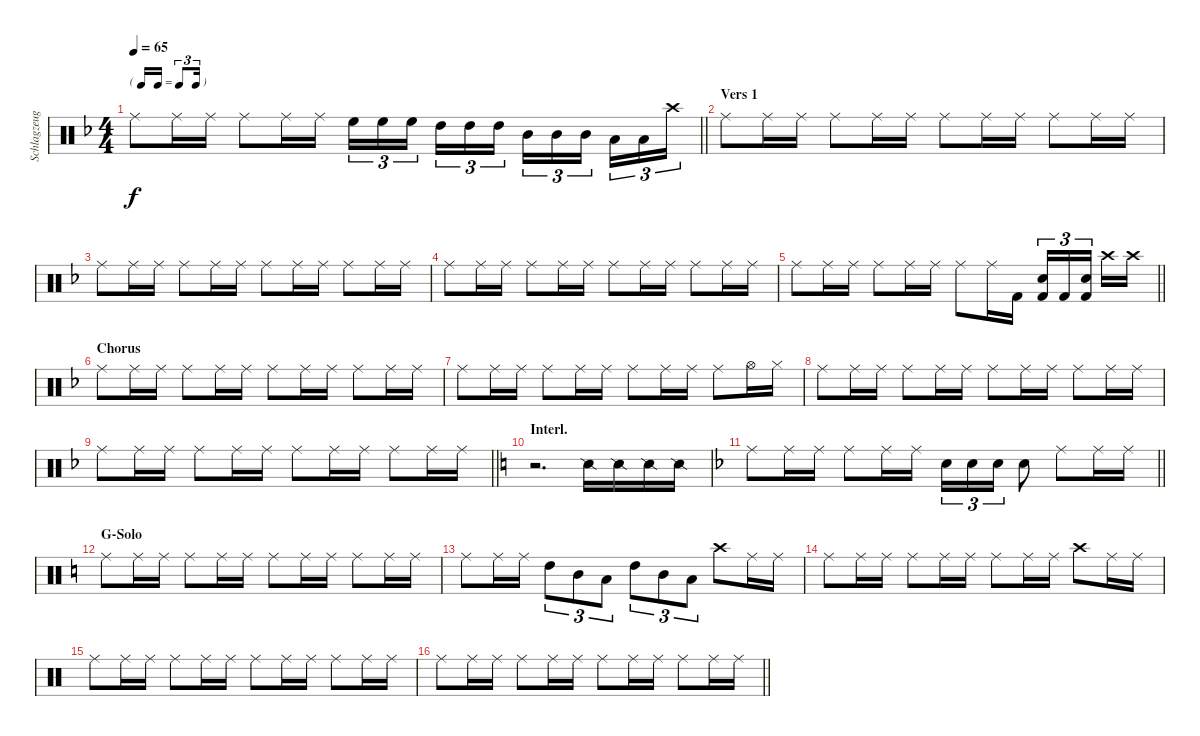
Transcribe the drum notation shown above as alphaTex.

\track ("Schlagzeug" "Schlagzeug") {instrument percussion}
\staff {score}
\articulation defaults
\ts (4 4)
\tf triplet16th
\tempo 65
\clef neutral
\barLineRight lightlight
\ks f "Ride (middle)".8{dy f} "Ride (middle)".16 "Ride (middle)".16 "Ride (middle)".8 "Ride (middle)".16 "Ride (middle)".16 "High Floor Tom (hit)".16{tu (3 2)} "High Floor Tom (hit)".16{tu (3 2)} "High Floor Tom (hit)".16{tu (3 2) beam splitsecondary} "High Tom (hit)".16{tu (3 2)} "High Tom (hit)".16{tu (3 2)} "High Tom (hit)".16{tu (3 2)} "Mid Tom (hit)".16{tu (3 2)} "Mid Tom (hit)".16{tu (3 2)} "Mid Tom (hit)".16{tu (3 2) beam splitsecondary} "Low Tom (hit)".16{tu (3 2)} "Low Tom (hit)".16{tu (3 2)} "Crash high (hit)".16{tu (3 2)}
|
\section ("" "Vers 1")
"Ride (middle)".8 "Ride (middle)".16 "Ride (middle)".16 "Ride (middle)".8 "Ride (middle)".16 "Ride (middle)".16 "Ride (middle)".8 "Ride (middle)".16 "Ride (middle)".16 "Ride (middle)".8 "Ride (middle)".16 "Ride (middle)".16 |
"Ride (middle)".8 "Ride (middle)".16 "Ride (middle)".16 "Ride (middle)".8 "Ride (middle)".16 "Ride (middle)".16 "Ride (middle)".8 "Ride (middle)".16 "Ride (middle)".16 "Ride (middle)".8 "Ride (middle)".16 "Ride (middle)".16 |
"Ride (middle)".8 "Ride (middle)".16 "Ride (middle)".16 "Ride (middle)".8 "Ride (middle)".16 "Ride (middle)".16 "Ride (middle)".8 "Ride (middle)".16 "Ride (middle)".16 "Ride (middle)".8 "Ride (middle)".16 "Ride (middle)".16 |
\barLineRight lightlight "Ride (middle)".8 "Ride (middle)".16 "Ride (middle)".16 "Ride (middle)".8 "Ride (middle)".16 "Ride (middle)".16 "Ride (middle)".8 "Ride (middle)".16 "Kick (hit) 2".16
("Electric Snare (hit)" "Kick (hit) 2").16{tu (3 2)} "Kick (hit) 2".16{tu (3 2)} ("Electric Snare (hit)" "Kick (hit) 2").16{tu (3 2) beam splitsecondary} "Crash high (hit)".16 "Crash high (hit)".16 |
\section ("" "Chorus")
"Ride (middle)".8 "Ride (middle)".16 "Ride (middle)".16 "Ride (middle)".8 "Ride (middle)".16 "Ride (middle)".16 "Ride (middle)".8 "Ride (middle)".16 "Ride (middle)".16 "Ride (middle)".8 "Ride (middle)".16 "Ride (middle)".16 |
"Ride (middle)".8 "Ride (middle)".16 "Ride (middle)".16 "Ride (middle)".8 "Ride (middle)".16 "Ride (middle)".16 "Ride (middle)".8 "Ride (middle)".16 "Ride (middle)".16 "Ride (middle)".8 "Hi-Hat (open)".16 "Hi-Hat (closed)".16 |
"Ride (middle)".8 "Ride (middle)".16 "Ride (middle)".16 "Ride (middle)".8 "Ride (middle)".16 "Ride (middle)".16 "Ride (middle)".8 "Ride (middle)".16 "Ride (middle)".16 "Ride (middle)".8 "Ride (middle)".16 "Ride (middle)".16 |
\barLineRight lightlight "Ride (middle)".8 "Ride (middle)".16 "Ride (middle)".16 "Ride (middle)".8 "Ride (middle)".16 "Ride (middle)".16 "Ride (middle)".8 "Ride (middle)".16 "Ride (middle)".16 "Ride (middle)".8 "Ride (middle)".16 "Ride (middle)".16
|
\section ("" "Interl.")
\ks c
r.2{d} "Snare (side stick) 2".16 "Snare (side stick) 2".16 "Snare (side stick) 2".16 "Snare (side stick) 2".16 |
\barLineRight lightlight
\ks f "Ride (middle)".8 "Ride (middle)".16 "Ride (middle)".16 "Ride (middle)".8 "Ride (middle)".16 "Ride (middle)".16 "Electric Snare (hit)".16{tu (3 2)} "Electric Snare (hit)".16{tu (3 2)} "Electric Snare (hit)".16{tu (3 2)} "Electric Snare (hit)".8 "Ride (middle)".8 "Ride (middle)".16 "Ride (middle)".16
|
\section ("" "G-Solo")
\ks c "Ride (middle)".8 "Ride (middle)".16 "Ride (middle)".16 "Ride (middle)".8 "Ride (middle)".16 "Ride (middle)".16 "Ride (middle)".8 "Ride (middle)".16 "Ride (middle)".16 "Ride (middle)".8 "Ride (middle)".16 "Ride (middle)".16
|
"Ride (middle)".8 "Ride (middle)".16 "Ride (middle)".16 "High Tom (hit)".8{tu (3 2)} "Mid Tom (hit)".8{tu (3 2)} "Low Tom (hit)".8{tu (3 2)} "High Tom (hit)".8{tu (3 2)} "Mid Tom (hit)".8{tu (3 2)} "Low Tom (hit)".8{tu (3 2)} "Crash high (hit)".8 "Ride (middle)".16 "Ride (middle)".16 |
"Ride (middle)".8 "Ride (middle)".16 "Ride (middle)".16 "Ride (middle)".8 "Ride (middle)".16 "Ride (middle)".16 "Ride (middle)".8 "Ride (middle)".16 "Ride (middle)".16 "Crash high (hit)".8 "Ride (middle)".16 "Ride (middle)".16 |
"Ride (middle)".8 "Ride (middle)".16 "Ride (middle)".16 "Ride (middle)".8 "Ride (middle)".16 "Ride (middle)".16 "Ride (middle)".8 "Ride (middle)".16 "Ride (middle)".16 "Ride (middle)".8 "Ride (middle)".16 "Ride (middle)".16 |
\barLineRight lightlight "Ride (middle)".8 "Ride (middle)".16 "Ride (middle)".16 "Ride (middle)".8 "Ride (middle)".16 "Ride (middle)".16 "Ride (middle)".8 "Ride (middle)".16 "Ride (middle)".16 "Ride (middle)".8 "Ride (middle)".16 "Ride (middle)".16
